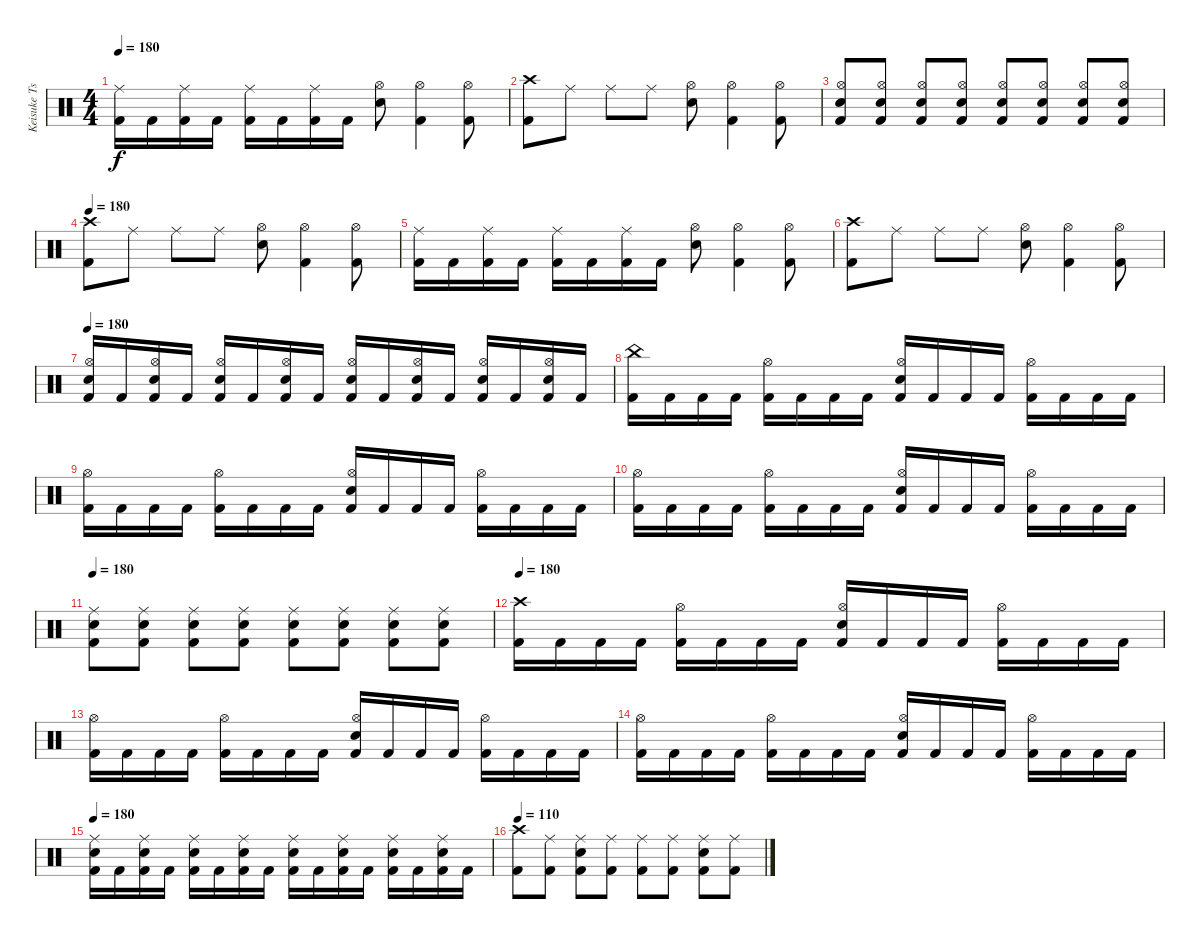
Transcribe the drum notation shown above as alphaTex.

\track ("Keisuke Tsuboi" "Keisuke Ts") {instrument percussion}
\staff {score}
\articulation defaults
\ts (4 4)
\tempo 180
\clef neutral
\ks c
("Ride (middle)" "Kick (hit) 2").16{dy f} "Kick (hit) 2".16 ("Ride (middle)" "Kick (hit) 2").16 "Kick (hit) 2".16 ("Ride (middle)" "Kick (hit) 2").16 "Kick (hit) 2".16 ("Ride (middle)" "Kick (hit) 2").16 "Kick (hit) 2".16 ("Hi-Hat (open)" "Electric Snare (hit)").8 ("Hi-Hat (open)" "Kick (hit) 2").4 ("Hi-Hat (open)" "Kick (hit) 2").8 |
("Crash high (hit)" "Kick (hit) 2").8 "Ride (middle)".8 "Ride (middle)".8 "Ride (middle)".8 ("Hi-Hat (open)" "Electric Snare (hit)").8 ("Hi-Hat (open)" "Kick (hit) 2").4 ("Hi-Hat (open)" "Kick (hit) 2").8 |
("Hi-Hat (open)" "Electric Snare (hit)" "Kick (hit) 2").8 ("Hi-Hat (open)" "Electric Snare (hit)" "Kick (hit) 2").8 ("Hi-Hat (open)" "Electric Snare (hit)" "Kick (hit) 2").8 ("Hi-Hat (open)" "Electric Snare (hit)" "Kick (hit) 2").8 ("Hi-Hat (open)" "Electric Snare (hit)" "Kick (hit) 2").8 ("Hi-Hat (open)" "Electric Snare (hit)" "Kick (hit) 2").8 ("Hi-Hat (open)" "Electric Snare (hit)" "Kick (hit) 2").8 ("Hi-Hat (open)" "Electric Snare (hit)" "Kick (hit) 2").8 |
\tempo 180
("Crash high (hit)" "Kick (hit) 2").8 "Ride (middle)".8 "Ride (middle)".8 "Ride (middle)".8 ("Hi-Hat (open)" "Electric Snare (hit)").8 ("Hi-Hat (open)" "Kick (hit) 2").4 ("Hi-Hat (open)" "Kick (hit) 2").8 |
("Ride (middle)" "Kick (hit) 2").16 "Kick (hit) 2".16 ("Ride (middle)" "Kick (hit) 2").16 "Kick (hit) 2".16 ("Ride (middle)" "Kick (hit) 2").16 "Kick (hit) 2".16 ("Ride (middle)" "Kick (hit) 2").16 "Kick (hit) 2".16 ("Hi-Hat (open)" "Electric Snare (hit)").8 ("Hi-Hat (open)" "Kick (hit) 2").4 ("Hi-Hat (open)" "Kick (hit) 2").8 |
("Crash high (hit)" "Kick (hit) 2").8 "Ride (middle)".8 "Ride (middle)".8 "Ride (middle)".8 ("Hi-Hat (open)" "Electric Snare (hit)").8 ("Hi-Hat (open)" "Kick (hit) 2").4 ("Hi-Hat (open)" "Kick (hit) 2").8 |
\tempo 180
("Hi-Hat (open)" "Electric Snare (hit)" "Kick (hit) 2").16 "Kick (hit) 2".16 ("Hi-Hat (open)" "Electric Snare (hit)" "Kick (hit) 2").16 "Kick (hit) 2".16 ("Hi-Hat (open)" "Electric Snare (hit)" "Kick (hit) 2").16 "Kick (hit) 2".16 ("Hi-Hat (open)" "Electric Snare (hit)" "Kick (hit) 2").16 "Kick (hit) 2".16 ("Hi-Hat (open)" "Electric Snare (hit)" "Kick (hit) 2").16 "Kick (hit) 2".16 ("Hi-Hat (open)" "Electric Snare (hit)" "Kick (hit) 2").16 "Kick (hit) 2".16 ("Hi-Hat (open)" "Electric Snare (hit)" "Kick (hit) 2").16 "Kick (hit) 2".16 ("Hi-Hat (open)" "Electric Snare (hit)" "Kick (hit) 2").16 "Kick (hit) 2".16 |
("China (hit)" "Kick (hit) 2").16 "Kick (hit) 2".16 "Kick (hit) 2".16 "Kick (hit) 2".16 ("Hi-Hat (open)" "Kick (hit) 2").16 "Kick (hit) 2".16 "Kick (hit) 2".16 "Kick (hit) 2".16 ("Hi-Hat (open)" "Electric Snare (hit)" "Kick (hit) 2").16 "Kick (hit) 2".16 "Kick (hit) 2".16 "Kick (hit) 2".16 ("Hi-Hat (open)" "Kick (hit) 2").16 "Kick (hit) 2".16 "Kick (hit) 2".16 "Kick (hit) 2".16 |
("Hi-Hat (open)" "Kick (hit) 2").16 "Kick (hit) 2".16 "Kick (hit) 2".16 "Kick (hit) 2".16 ("Hi-Hat (open)" "Kick (hit) 2").16 "Kick (hit) 2".16 "Kick (hit) 2".16 "Kick (hit) 2".16 ("Hi-Hat (open)" "Electric Snare (hit)" "Kick (hit) 2").16 "Kick (hit) 2".16 "Kick (hit) 2".16 "Kick (hit) 2".16 ("Hi-Hat (open)" "Kick (hit) 2").16 "Kick (hit) 2".16 "Kick (hit) 2".16 "Kick (hit) 2".16 |
("Hi-Hat (open)" "Kick (hit) 2").16 "Kick (hit) 2".16 "Kick (hit) 2".16 "Kick (hit) 2".16 ("Hi-Hat (open)" "Kick (hit) 2").16 "Kick (hit) 2".16 "Kick (hit) 2".16 "Kick (hit) 2".16 ("Hi-Hat (open)" "Electric Snare (hit)" "Kick (hit) 2").16 "Kick (hit) 2".16 "Kick (hit) 2".16 "Kick (hit) 2".16 ("Hi-Hat (open)" "Kick (hit) 2").16 "Kick (hit) 2".16 "Kick (hit) 2".16 "Kick (hit) 2".16 |
\tempo 180
("Ride (middle)" "Electric Snare (hit)" "Kick (hit) 2").8 ("Ride (middle)" "Electric Snare (hit)" "Kick (hit) 2").8 ("Ride (middle)" "Electric Snare (hit)" "Kick (hit) 2").8 ("Ride (middle)" "Electric Snare (hit)" "Kick (hit) 2").8 ("Ride (middle)" "Electric Snare (hit)" "Kick (hit) 2").8 ("Ride (middle)" "Electric Snare (hit)" "Kick (hit) 2").8 ("Ride (middle)" "Electric Snare (hit)" "Kick (hit) 2").8 ("Ride (middle)" "Electric Snare (hit)" "Kick (hit) 2").8 |
\tempo 180
("Crash high (hit)" "Kick (hit) 2").16 "Kick (hit) 2".16 "Kick (hit) 2".16 "Kick (hit) 2".16 ("Hi-Hat (open)" "Kick (hit) 2").16 "Kick (hit) 2".16 "Kick (hit) 2".16 "Kick (hit) 2".16 ("Hi-Hat (open)" "Electric Snare (hit)" "Kick (hit) 2").16 "Kick (hit) 2".16 "Kick (hit) 2".16 "Kick (hit) 2".16 ("Hi-Hat (open)" "Kick (hit) 2").16 "Kick (hit) 2".16 "Kick (hit) 2".16 "Kick (hit) 2".16 |
("Hi-Hat (open)" "Kick (hit) 2").16 "Kick (hit) 2".16 "Kick (hit) 2".16 "Kick (hit) 2".16 ("Hi-Hat (open)" "Kick (hit) 2").16 "Kick (hit) 2".16 "Kick (hit) 2".16 "Kick (hit) 2".16 ("Hi-Hat (open)" "Electric Snare (hit)" "Kick (hit) 2").16 "Kick (hit) 2".16 "Kick (hit) 2".16 "Kick (hit) 2".16 ("Hi-Hat (open)" "Kick (hit) 2").16 "Kick (hit) 2".16 "Kick (hit) 2".16 "Kick (hit) 2".16 |
("Hi-Hat (open)" "Kick (hit) 2").16 "Kick (hit) 2".16 "Kick (hit) 2".16 "Kick (hit) 2".16 ("Hi-Hat (open)" "Kick (hit) 2").16 "Kick (hit) 2".16 "Kick (hit) 2".16 "Kick (hit) 2".16 ("Hi-Hat (open)" "Electric Snare (hit)" "Kick (hit) 2").16 "Kick (hit) 2".16 "Kick (hit) 2".16 "Kick (hit) 2".16 ("Hi-Hat (open)" "Kick (hit) 2").16 "Kick (hit) 2".16 "Kick (hit) 2".16 "Kick (hit) 2".16 |
\tempo 180
("Ride (middle)" "Electric Snare (hit)" "Kick (hit) 2").16 "Kick (hit) 2".16 ("Ride (middle)" "Electric Snare (hit)" "Kick (hit) 2").16 "Kick (hit) 2".16 ("Ride (middle)" "Electric Snare (hit)" "Kick (hit) 2").16 "Kick (hit) 2".16 ("Ride (middle)" "Electric Snare (hit)" "Kick (hit) 2").16 "Kick (hit) 2".16 ("Ride (middle)" "Electric Snare (hit)" "Kick (hit) 2").16 "Kick (hit) 2".16 ("Ride (middle)" "Electric Snare (hit)" "Kick (hit) 2").16 "Kick (hit) 2".16 ("Ride (middle)" "Electric Snare (hit)" "Kick (hit) 2").16 "Kick (hit) 2".16 ("Ride (middle)" "Electric Snare (hit)" "Kick (hit) 2").16 "Kick (hit) 2".16 |
\tempo 120
\tempo 110
("Crash high (hit)" "Kick (hit) 2").8 ("Ride (middle)" "Kick (hit) 2").8 ("Ride (middle)" "Electric Snare (hit)" "Kick (hit) 2").8 ("Ride (middle)" "Kick (hit) 2").8 ("Ride (middle)" "Kick (hit) 2").8 ("Ride (middle)" "Kick (hit) 2").8 ("Ride (middle)" "Electric Snare (hit)" "Kick (hit) 2").8 ("Ride (middle)" "Kick (hit) 2").8
